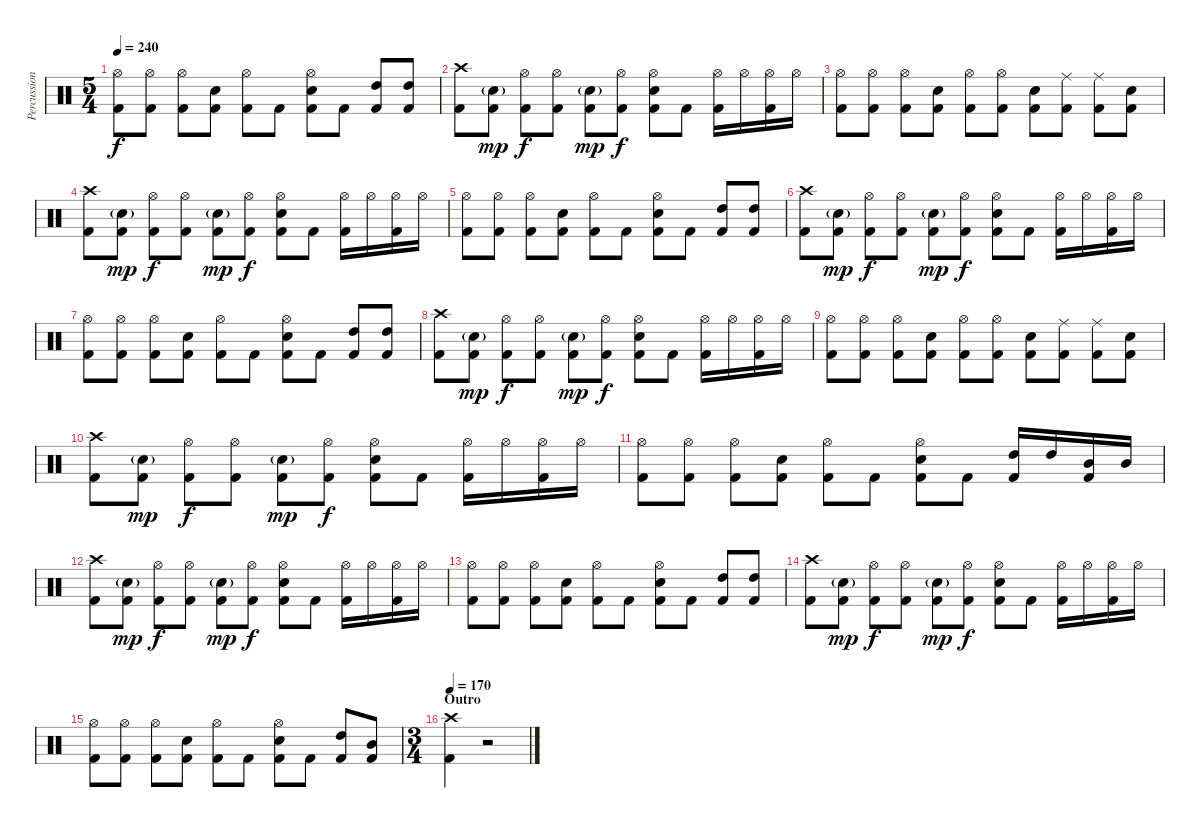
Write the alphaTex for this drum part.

\track ("Percussion" "Percussion") {instrument percussion}
\staff {score}
\articulation defaults
\ts (5 4)
\tempo 240
\clef neutral
\ks c
("Hi-Hat (open)" "Kick (hit) 2").8{dy f} ("Hi-Hat (open)" "Kick (hit) 2").8 ("Hi-Hat (open)" "Kick (hit) 2").8 ("Electric Snare (hit)" "Kick (hit) 2").8 ("Hi-Hat (open)" "Kick (hit) 2").8 "Kick (hit) 2".8 ("Hi-Hat (open)" "Electric Snare (hit)" "Kick (hit) 2").8 "Kick (hit) 2".8 ("High Tom (hit)" "Kick (hit) 2").8 ("High Tom (hit)" "Kick (hit) 2").8 |
("Crash high (hit)" "Kick (hit) 2").8 ("Electric Snare (hit)"{g} "Kick (hit) 2").8{dy mp} ("Hi-Hat (open)" "Kick (hit) 2").8{dy f} ("Hi-Hat (open)" "Kick (hit) 2").8 ("Electric Snare (hit)"{g} "Kick (hit) 2").8{dy mp} ("Hi-Hat (open)" "Kick (hit) 2").8{dy f} ("Hi-Hat (open)" "Electric Snare (hit)" "Kick (hit) 2").8 "Kick (hit) 2".8 ("Hi-Hat (open)" "Kick (hit) 2").16 "Hi-Hat (open)".16 ("Hi-Hat (open)" "Kick (hit) 2").16 "Hi-Hat (open)".16 |
("Hi-Hat (open)" "Kick (hit) 2").8 ("Hi-Hat (open)" "Kick (hit) 2").8 ("Hi-Hat (open)" "Kick (hit) 2").8 ("Electric Snare (hit)" "Kick (hit) 2").8 ("Hi-Hat (open)" "Kick (hit) 2").8 ("Hi-Hat (open)" "Kick (hit) 2").8 ("Electric Snare (hit)" "Kick (hit) 2").8 ("Ride (middle)" "Kick (hit) 2").8 ("Ride (middle)" "Kick (hit) 2").8 ("Electric Snare (hit)" "Kick (hit) 2").8 |
("Crash high (hit)" "Kick (hit) 2").8 ("Electric Snare (hit)"{g} "Kick (hit) 2").8{dy mp} ("Hi-Hat (open)" "Kick (hit) 2").8{dy f} ("Hi-Hat (open)" "Kick (hit) 2").8 ("Electric Snare (hit)"{g} "Kick (hit) 2").8{dy mp} ("Hi-Hat (open)" "Kick (hit) 2").8{dy f} ("Hi-Hat (open)" "Electric Snare (hit)" "Kick (hit) 2").8 "Kick (hit) 2".8 ("Hi-Hat (open)" "Kick (hit) 2").16 "Hi-Hat (open)".16 ("Hi-Hat (open)" "Kick (hit) 2").16 "Hi-Hat (open)".16 |
("Hi-Hat (open)" "Kick (hit) 2").8 ("Hi-Hat (open)" "Kick (hit) 2").8 ("Hi-Hat (open)" "Kick (hit) 2").8 ("Electric Snare (hit)" "Kick (hit) 2").8 ("Hi-Hat (open)" "Kick (hit) 2").8 "Kick (hit) 2".8 ("Hi-Hat (open)" "Electric Snare (hit)" "Kick (hit) 2").8 "Kick (hit) 2".8 ("High Tom (hit)" "Kick (hit) 2").8 ("High Tom (hit)" "Kick (hit) 2").8 |
("Crash high (hit)" "Kick (hit) 2").8 ("Electric Snare (hit)"{g} "Kick (hit) 2").8{dy mp} ("Hi-Hat (open)" "Kick (hit) 2").8{dy f} ("Hi-Hat (open)" "Kick (hit) 2").8 ("Electric Snare (hit)"{g} "Kick (hit) 2").8{dy mp} ("Hi-Hat (open)" "Kick (hit) 2").8{dy f} ("Hi-Hat (open)" "Electric Snare (hit)" "Kick (hit) 2").8 "Kick (hit) 2".8 ("Hi-Hat (open)" "Kick (hit) 2").16 "Hi-Hat (open)".16 ("Hi-Hat (open)" "Kick (hit) 2").16 "Hi-Hat (open)".16 |
("Hi-Hat (open)" "Kick (hit) 2").8 ("Hi-Hat (open)" "Kick (hit) 2").8 ("Hi-Hat (open)" "Kick (hit) 2").8 ("Electric Snare (hit)" "Kick (hit) 2").8 ("Hi-Hat (open)" "Kick (hit) 2").8 "Kick (hit) 2".8 ("Hi-Hat (open)" "Electric Snare (hit)" "Kick (hit) 2").8 "Kick (hit) 2".8 ("High Tom (hit)" "Kick (hit) 2").8 ("High Tom (hit)" "Kick (hit) 2").8 |
("Crash high (hit)" "Kick (hit) 2").8 ("Electric Snare (hit)"{g} "Kick (hit) 2").8{dy mp} ("Hi-Hat (open)" "Kick (hit) 2").8{dy f} ("Hi-Hat (open)" "Kick (hit) 2").8 ("Electric Snare (hit)"{g} "Kick (hit) 2").8{dy mp} ("Hi-Hat (open)" "Kick (hit) 2").8{dy f} ("Hi-Hat (open)" "Electric Snare (hit)" "Kick (hit) 2").8 "Kick (hit) 2".8 ("Hi-Hat (open)" "Kick (hit) 2").16 "Hi-Hat (open)".16 ("Hi-Hat (open)" "Kick (hit) 2").16 "Hi-Hat (open)".16 |
("Hi-Hat (open)" "Kick (hit) 2").8 ("Hi-Hat (open)" "Kick (hit) 2").8 ("Hi-Hat (open)" "Kick (hit) 2").8 ("Electric Snare (hit)" "Kick (hit) 2").8 ("Hi-Hat (open)" "Kick (hit) 2").8 ("Hi-Hat (open)" "Kick (hit) 2").8 ("Electric Snare (hit)" "Kick (hit) 2").8 ("Ride (middle)" "Kick (hit) 2").8 ("Ride (middle)" "Kick (hit) 2").8 ("Electric Snare (hit)" "Kick (hit) 2").8 |
("Crash high (hit)" "Kick (hit) 2").8 ("Electric Snare (hit)"{g} "Kick (hit) 2").8{dy mp} ("Hi-Hat (open)" "Kick (hit) 2").8{dy f} ("Hi-Hat (open)" "Kick (hit) 2").8 ("Electric Snare (hit)"{g} "Kick (hit) 2").8{dy mp} ("Hi-Hat (open)" "Kick (hit) 2").8{dy f} ("Hi-Hat (open)" "Electric Snare (hit)" "Kick (hit) 2").8 "Kick (hit) 2".8 ("Hi-Hat (open)" "Kick (hit) 2").16 "Hi-Hat (open)".16 ("Hi-Hat (open)" "Kick (hit) 2").16 "Hi-Hat (open)".16 |
("Hi-Hat (open)" "Kick (hit) 2").8 ("Hi-Hat (open)" "Kick (hit) 2").8 ("Hi-Hat (open)" "Kick (hit) 2").8 ("Electric Snare (hit)" "Kick (hit) 2").8 ("Hi-Hat (open)" "Kick (hit) 2").8 "Kick (hit) 2".8 ("Hi-Hat (open)" "Electric Snare (hit)" "Kick (hit) 2").8 "Kick (hit) 2".8 ("High Tom (hit)" "Kick (hit) 2").16 "High Tom (hit)".16 ("Mid Tom (hit)" "Kick (hit) 2").16 "Mid Tom (hit)".16 |
("Crash high (hit)" "Kick (hit) 2").8 ("Electric Snare (hit)"{g} "Kick (hit) 2").8{dy mp} ("Hi-Hat (open)" "Kick (hit) 2").8{dy f} ("Hi-Hat (open)" "Kick (hit) 2").8 ("Electric Snare (hit)"{g} "Kick (hit) 2").8{dy mp} ("Hi-Hat (open)" "Kick (hit) 2").8{dy f} ("Hi-Hat (open)" "Electric Snare (hit)" "Kick (hit) 2").8 "Kick (hit) 2".8 ("Hi-Hat (open)" "Kick (hit) 2").16 "Hi-Hat (open)".16 ("Hi-Hat (open)" "Kick (hit) 2").16 "Hi-Hat (open)".16 |
("Hi-Hat (open)" "Kick (hit) 2").8 ("Hi-Hat (open)" "Kick (hit) 2").8 ("Hi-Hat (open)" "Kick (hit) 2").8 ("Electric Snare (hit)" "Kick (hit) 2").8 ("Hi-Hat (open)" "Kick (hit) 2").8 "Kick (hit) 2".8 ("Hi-Hat (open)" "Electric Snare (hit)" "Kick (hit) 2").8 "Kick (hit) 2".8 ("High Tom (hit)" "Kick (hit) 2").8 ("High Tom (hit)" "Kick (hit) 2").8 |
("Crash high (hit)" "Kick (hit) 2").8 ("Electric Snare (hit)"{g} "Kick (hit) 2").8{dy mp} ("Hi-Hat (open)" "Kick (hit) 2").8{dy f} ("Hi-Hat (open)" "Kick (hit) 2").8 ("Electric Snare (hit)"{g} "Kick (hit) 2").8{dy mp} ("Hi-Hat (open)" "Kick (hit) 2").8{dy f} ("Hi-Hat (open)" "Electric Snare (hit)" "Kick (hit) 2").8 "Kick (hit) 2".8 ("Hi-Hat (open)" "Kick (hit) 2").16 "Hi-Hat (open)".16 ("Hi-Hat (open)" "Kick (hit) 2").16 "Hi-Hat (open)".16 |
("Hi-Hat (open)" "Kick (hit) 2").8 ("Hi-Hat (open)" "Kick (hit) 2").8 ("Hi-Hat (open)" "Kick (hit) 2").8 ("Electric Snare (hit)" "Kick (hit) 2").8 ("Hi-Hat (open)" "Kick (hit) 2").8 "Kick (hit) 2".8 ("Hi-Hat (open)" "Electric Snare (hit)" "Kick (hit) 2").8 "Kick (hit) 2".8 ("High Tom (hit)" "Kick (hit) 2").8 ("Mid Tom (hit)" "Kick (hit) 2").8 |
\ts (3 4)
\section ("" "Outro")
\tempo 170
("Crash high (hit)" "Kick (hit) 2").4 r.2
